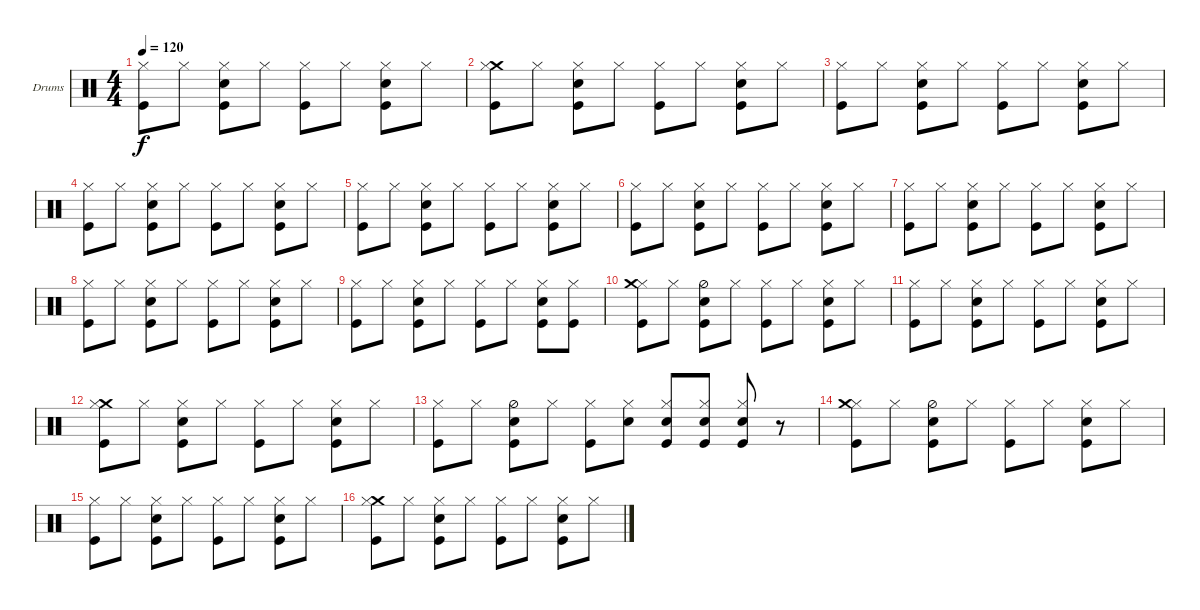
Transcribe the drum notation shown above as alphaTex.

\bracketExtendMode nobrackets
\firstSystemTrackNameOrientation horizontal
\otherSystemsTrackNameOrientation horizontal
\track ("Drumkit" "Drums") {instrument percussion}
\staff {score}
\articulation defaults
\ts (4 4)
\tempo 120
\clef neutral
\ks c
("Kick (hit)" "Hi-Hat (closed)").8{dy f} "Hi-Hat (closed)".8 ("Kick (hit)" "Snare (hit) 2" "Hi-Hat (closed)").8 "Hi-Hat (closed)".8 ("Kick (hit)" "Hi-Hat (closed)").8 "Hi-Hat (closed)".8 ("Kick (hit)" "Snare (hit) 2" "Hi-Hat (closed)").8 "Hi-Hat (closed)".8 |
("Kick (hit)" "Crash medium (hit)" "Hi-Hat (closed)").8 "Hi-Hat (closed)".8 ("Kick (hit)" "Snare (hit) 2" "Hi-Hat (closed)").8 "Hi-Hat (closed)".8 ("Kick (hit)" "Hi-Hat (closed)").8 "Hi-Hat (closed)".8 ("Kick (hit)" "Snare (hit) 2" "Hi-Hat (closed)").8 "Hi-Hat (closed)".8 |
("Kick (hit)" "Hi-Hat (closed)").8 "Hi-Hat (closed)".8 ("Kick (hit)" "Snare (hit) 2" "Hi-Hat (closed)").8 "Hi-Hat (closed)".8 ("Kick (hit)" "Hi-Hat (closed)").8 "Hi-Hat (closed)".8 ("Kick (hit)" "Snare (hit) 2" "Hi-Hat (closed)").8 "Hi-Hat (closed)".8 |
("Kick (hit)" "Hi-Hat (closed)").8 "Hi-Hat (closed)".8 ("Kick (hit)" "Snare (hit) 2" "Hi-Hat (closed)").8 "Hi-Hat (closed)".8 ("Kick (hit)" "Hi-Hat (closed)").8 "Hi-Hat (closed)".8 ("Kick (hit)" "Snare (hit) 2" "Hi-Hat (closed)").8 "Hi-Hat (closed)".8 |
("Kick (hit)" "Hi-Hat (closed)").8 "Hi-Hat (closed)".8 ("Kick (hit)" "Snare (hit) 2" "Hi-Hat (closed)").8 "Hi-Hat (closed)".8 ("Kick (hit)" "Hi-Hat (closed)").8 "Hi-Hat (closed)".8 ("Kick (hit)" "Snare (hit) 2" "Hi-Hat (closed)").8 "Hi-Hat (closed)".8 |
("Kick (hit)" "Hi-Hat (closed)").8 "Hi-Hat (closed)".8 ("Kick (hit)" "Snare (hit) 2" "Hi-Hat (closed)").8 "Hi-Hat (closed)".8 ("Kick (hit)" "Hi-Hat (closed)").8 "Hi-Hat (closed)".8 ("Kick (hit)" "Snare (hit) 2" "Hi-Hat (closed)").8 "Hi-Hat (closed)".8 |
("Kick (hit)" "Hi-Hat (closed)").8 "Hi-Hat (closed)".8 ("Kick (hit)" "Snare (hit) 2" "Hi-Hat (closed)").8 "Hi-Hat (closed)".8 ("Kick (hit)" "Hi-Hat (closed)").8 "Hi-Hat (closed)".8 ("Kick (hit)" "Snare (hit) 2" "Hi-Hat (closed)").8 "Hi-Hat (closed)".8 |
("Kick (hit)" "Hi-Hat (closed)").8 "Hi-Hat (closed)".8 ("Kick (hit)" "Snare (hit) 2" "Hi-Hat (closed)").8 "Hi-Hat (closed)".8 ("Kick (hit)" "Hi-Hat (closed)").8 "Hi-Hat (closed)".8 ("Kick (hit)" "Snare (hit) 2" "Hi-Hat (closed)").8 "Hi-Hat (closed)".8 |
("Kick (hit)" "Hi-Hat (closed)").8 "Hi-Hat (closed)".8 ("Kick (hit)" "Snare (hit) 2" "Hi-Hat (closed)").8 "Hi-Hat (closed)".8 ("Kick (hit)" "Hi-Hat (closed)").8 "Hi-Hat (closed)".8 ("Kick (hit)" "Snare (hit) 2" "Hi-Hat (closed)").8 ("Hi-Hat (closed)" "Kick (hit)").8 |
("Kick (hit)" "Hi-Hat (closed)" "Crash medium (hit)").8 "Hi-Hat (closed)".8 ("Kick (hit)" "Hi-Hat (half)" "Snare (hit) 2").8 "Hi-Hat (closed)".8 ("Kick (hit)" "Hi-Hat (closed)").8 "Hi-Hat (closed)".8 ("Kick (hit)" "Snare (hit) 2" "Hi-Hat (closed)").8 "Hi-Hat (closed)".8 |
("Kick (hit)" "Hi-Hat (closed)").8 "Hi-Hat (closed)".8 ("Kick (hit)" "Snare (hit) 2" "Hi-Hat (closed)").8 "Hi-Hat (closed)".8 ("Kick (hit)" "Hi-Hat (closed)").8 "Hi-Hat (closed)".8 ("Kick (hit)" "Snare (hit) 2" "Hi-Hat (closed)").8 "Hi-Hat (closed)".8 |
("Kick (hit)" "Crash medium (hit)" "Hi-Hat (closed)").8 "Hi-Hat (closed)".8 ("Kick (hit)" "Snare (hit) 2" "Hi-Hat (closed)").8 "Hi-Hat (closed)".8 ("Kick (hit)" "Hi-Hat (closed)").8 "Hi-Hat (closed)".8 ("Kick (hit)" "Snare (hit) 2" "Hi-Hat (closed)").8 "Hi-Hat (closed)".8 |
("Kick (hit)" "Hi-Hat (closed)").8 "Hi-Hat (closed)".8 ("Snare (hit) 2" "Hi-Hat (half)" "Kick (hit)").8 "Hi-Hat (closed)".8 ("Kick (hit)" "Hi-Hat (closed)").8 ("Hi-Hat (closed)" "Snare (hit) 2").8 ("Kick (hit)" "Snare (hit) 2" "Hi-Hat (closed)").8 ("Hi-Hat (closed)" "Snare (hit) 2" "Kick (hit)").8 ("Kick (hit)" "Hi-Hat (closed)" "Snare (hit) 2").8 r.8 |
("Kick (hit)" "Hi-Hat (closed)" "Crash medium (hit)").8 "Hi-Hat (closed)".8 ("Kick (hit)" "Hi-Hat (half)" "Snare (hit) 2").8 "Hi-Hat (closed)".8 ("Kick (hit)" "Hi-Hat (closed)").8 "Hi-Hat (closed)".8 ("Kick (hit)" "Snare (hit) 2" "Hi-Hat (closed)").8 "Hi-Hat (closed)".8 |
("Kick (hit)" "Hi-Hat (closed)").8 "Hi-Hat (closed)".8 ("Kick (hit)" "Snare (hit) 2" "Hi-Hat (closed)").8 "Hi-Hat (closed)".8 ("Kick (hit)" "Hi-Hat (closed)").8 "Hi-Hat (closed)".8 ("Kick (hit)" "Snare (hit) 2" "Hi-Hat (closed)").8 "Hi-Hat (closed)".8 |
("Kick (hit)" "Crash medium (hit)" "Hi-Hat (closed)").8 "Hi-Hat (closed)".8 ("Kick (hit)" "Snare (hit) 2" "Hi-Hat (closed)").8 "Hi-Hat (closed)".8 ("Kick (hit)" "Hi-Hat (closed)").8 "Hi-Hat (closed)".8 ("Kick (hit)" "Snare (hit) 2" "Hi-Hat (closed)").8 "Hi-Hat (closed)".8
